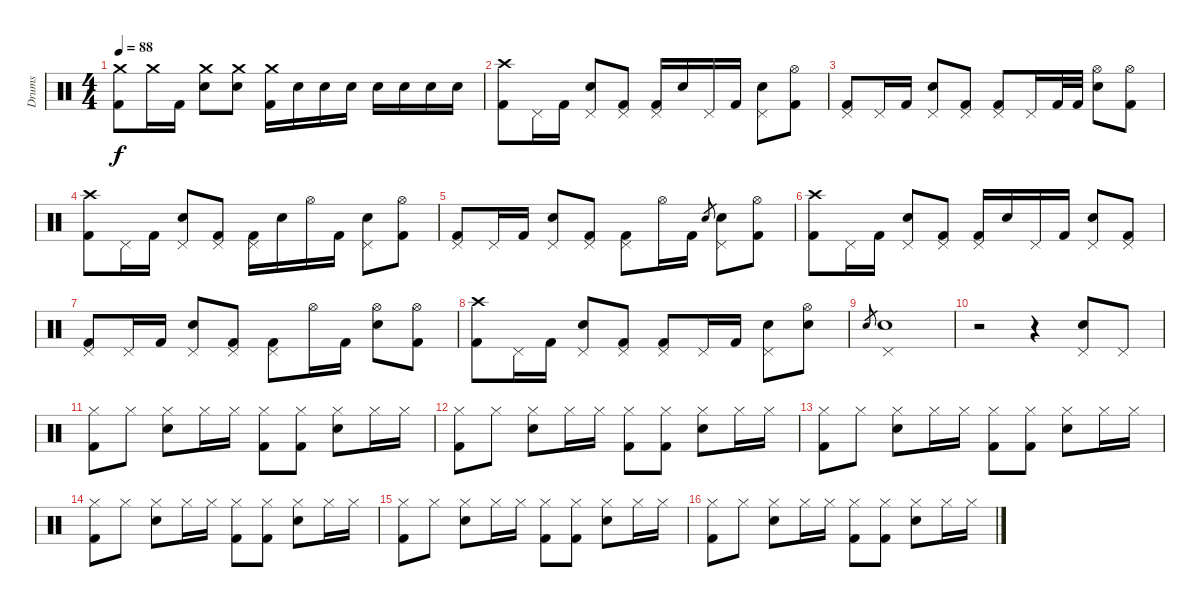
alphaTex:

\track ("Drums" "Drums") {instrument percussion}
\staff {score}
\articulation defaults
\ts (4 4)
\tempo 88
\clef neutral
\ks c
("Crash medium (hit)" "Kick (hit) 2").8{dy f} "Crash medium (hit)".16 "Kick (hit) 2".16 ("Crash medium (hit)" "Electric Snare (hit)").8 ("Crash medium (hit)" "Electric Snare (hit)").8 ("Crash medium (hit)" "Kick (hit) 2").16 "Electric Snare (hit)".16 "Electric Snare (hit)".16 "Electric Snare (hit)".16 "Electric Snare (hit)".16 "Electric Snare (hit)".16 "Electric Snare (hit)".16 "Electric Snare (hit)".16 |
("Crash high (hit)" "Kick (hit) 2").8 "Pedal Hi-Hat (hit)".16 "Kick (hit) 2".16 ("Pedal Hi-Hat (hit)" "Electric Snare (hit)").8 ("Pedal Hi-Hat (hit)" "Kick (hit) 2").8 ("Pedal Hi-Hat (hit)" "Kick (hit) 2").16 "Electric Snare (hit)".16 "Pedal Hi-Hat (hit)".16 "Kick (hit) 2".16 ("Pedal Hi-Hat (hit)" "Electric Snare (hit)").8 ("Hi-Hat (open)" "Kick (hit) 2").8 |
("Pedal Hi-Hat (hit)" "Kick (hit) 2").8 "Pedal Hi-Hat (hit)".16 "Kick (hit) 2".16 ("Pedal Hi-Hat (hit)" "Electric Snare (hit)").8 ("Pedal Hi-Hat (hit)" "Kick (hit) 2").8 ("Pedal Hi-Hat (hit)" "Kick (hit) 2").8 "Pedal Hi-Hat (hit)".16 "Kick (hit) 2".32 "Kick (hit) 2".32 ("Hi-Hat (open)" "Electric Snare (hit)").8 ("Hi-Hat (open)" "Kick (hit) 2").8 |
("Crash high (hit)" "Kick (hit) 2").8 "Pedal Hi-Hat (hit)".16 "Kick (hit) 2".16 ("Pedal Hi-Hat (hit)" "Electric Snare (hit)").8 ("Pedal Hi-Hat (hit)" "Kick (hit) 2").8 ("Pedal Hi-Hat (hit)" "Kick (hit) 2").16 "Electric Snare (hit)".16 "Hi-Hat (open)".16 "Kick (hit) 2".16 ("Pedal Hi-Hat (hit)" "Electric Snare (hit)").8 ("Hi-Hat (open)" "Kick (hit) 2").8 |
("Pedal Hi-Hat (hit)" "Kick (hit) 2").8 "Pedal Hi-Hat (hit)".16 "Kick (hit) 2".16 ("Pedal Hi-Hat (hit)" "Electric Snare (hit)").8 ("Pedal Hi-Hat (hit)" "Kick (hit) 2").8 ("Pedal Hi-Hat (hit)" "Kick (hit) 2").8 "Hi-Hat (open)".16 "Kick (hit) 2".16 "Electric Snare (hit)".8{gr} ("Pedal Hi-Hat (hit)" "Electric Snare (hit)").8 ("Hi-Hat (open)" "Kick (hit) 2").8 |
("Crash high (hit)" "Kick (hit) 2").8 "Pedal Hi-Hat (hit)".16 "Kick (hit) 2".16 ("Pedal Hi-Hat (hit)" "Electric Snare (hit)").8 ("Pedal Hi-Hat (hit)" "Kick (hit) 2").8 ("Pedal Hi-Hat (hit)" "Kick (hit) 2").16 "Electric Snare (hit)".16 "Pedal Hi-Hat (hit)".16 "Kick (hit) 2".16 ("Pedal Hi-Hat (hit)" "Electric Snare (hit)").8 ("Pedal Hi-Hat (hit)" "Kick (hit) 2").8 |
("Pedal Hi-Hat (hit)" "Kick (hit) 2").8 "Pedal Hi-Hat (hit)".16 "Kick (hit) 2".16 ("Pedal Hi-Hat (hit)" "Electric Snare (hit)").8 ("Pedal Hi-Hat (hit)" "Kick (hit) 2").8 ("Pedal Hi-Hat (hit)" "Kick (hit) 2").8 "Hi-Hat (open)".16 "Kick (hit) 2".16 ("Hi-Hat (open)" "Electric Snare (hit)").8 ("Hi-Hat (open)" "Kick (hit) 2").8 |
("Crash high (hit)" "Kick (hit) 2").8 "Pedal Hi-Hat (hit)".16 "Kick (hit) 2".16 ("Pedal Hi-Hat (hit)" "Electric Snare (hit)").8 ("Pedal Hi-Hat (hit)" "Kick (hit) 2").8 ("Pedal Hi-Hat (hit)" "Kick (hit) 2").8 "Pedal Hi-Hat (hit)".16 "Kick (hit) 2".16 ("Pedal Hi-Hat (hit)" "Electric Snare (hit)").8 ("Hi-Hat (open)" "Electric Snare (hit)").8 |
"Electric Snare (hit)".8{gr} ("Pedal Hi-Hat (hit)" "Electric Snare (hit)").1 |
r.2{volume 15} r.4 ("Pedal Hi-Hat (hit)" "Electric Snare (hit)").8 "Pedal Hi-Hat (hit)".8 |
("Hi-Hat (closed)" "Kick (hit) 2").8 "Hi-Hat (closed)".8 ("Hi-Hat (closed)" "Electric Snare (hit)").8 "Hi-Hat (closed)".16 "Hi-Hat (closed)".16 ("Hi-Hat (closed)" "Kick (hit) 2").8 ("Hi-Hat (closed)" "Kick (hit) 2").8 ("Hi-Hat (closed)" "Electric Snare (hit)").8 "Hi-Hat (closed)".16 "Hi-Hat (closed)".16 |
("Hi-Hat (closed)" "Kick (hit) 2").8 "Hi-Hat (closed)".8 ("Hi-Hat (closed)" "Electric Snare (hit)").8 "Hi-Hat (closed)".16 "Hi-Hat (closed)".16 ("Hi-Hat (closed)" "Kick (hit) 2").8 ("Hi-Hat (closed)" "Kick (hit) 2").8 ("Hi-Hat (closed)" "Electric Snare (hit)").8 "Hi-Hat (closed)".16 "Hi-Hat (closed)".16 |
("Hi-Hat (closed)" "Kick (hit) 2").8 "Hi-Hat (closed)".8 ("Hi-Hat (closed)" "Electric Snare (hit)").8 "Hi-Hat (closed)".16 "Hi-Hat (closed)".16 ("Hi-Hat (closed)" "Kick (hit) 2").8 ("Hi-Hat (closed)" "Kick (hit) 2").8 ("Hi-Hat (closed)" "Electric Snare (hit)").8 "Hi-Hat (closed)".16 "Hi-Hat (closed)".16 |
("Hi-Hat (closed)" "Kick (hit) 2").8 "Hi-Hat (closed)".8 ("Hi-Hat (closed)" "Electric Snare (hit)").8 "Hi-Hat (closed)".16 "Hi-Hat (closed)".16 ("Hi-Hat (closed)" "Kick (hit) 2").8 ("Hi-Hat (closed)" "Kick (hit) 2").8 ("Hi-Hat (closed)" "Electric Snare (hit)").8 "Hi-Hat (closed)".16 "Hi-Hat (closed)".16 |
("Hi-Hat (closed)" "Kick (hit) 2").8 "Hi-Hat (closed)".8 ("Hi-Hat (closed)" "Electric Snare (hit)").8 "Hi-Hat (closed)".16 "Hi-Hat (closed)".16 ("Hi-Hat (closed)" "Kick (hit) 2").8 ("Hi-Hat (closed)" "Kick (hit) 2").8 ("Hi-Hat (closed)" "Electric Snare (hit)").8 "Hi-Hat (closed)".16 "Hi-Hat (closed)".16 |
("Hi-Hat (closed)" "Kick (hit) 2").8 "Hi-Hat (closed)".8 ("Hi-Hat (closed)" "Electric Snare (hit)").8 "Hi-Hat (closed)".16 "Hi-Hat (closed)".16 ("Hi-Hat (closed)" "Kick (hit) 2").8 ("Hi-Hat (closed)" "Kick (hit) 2").8 ("Hi-Hat (closed)" "Electric Snare (hit)").8 "Hi-Hat (closed)".16 "Hi-Hat (closed)".16
